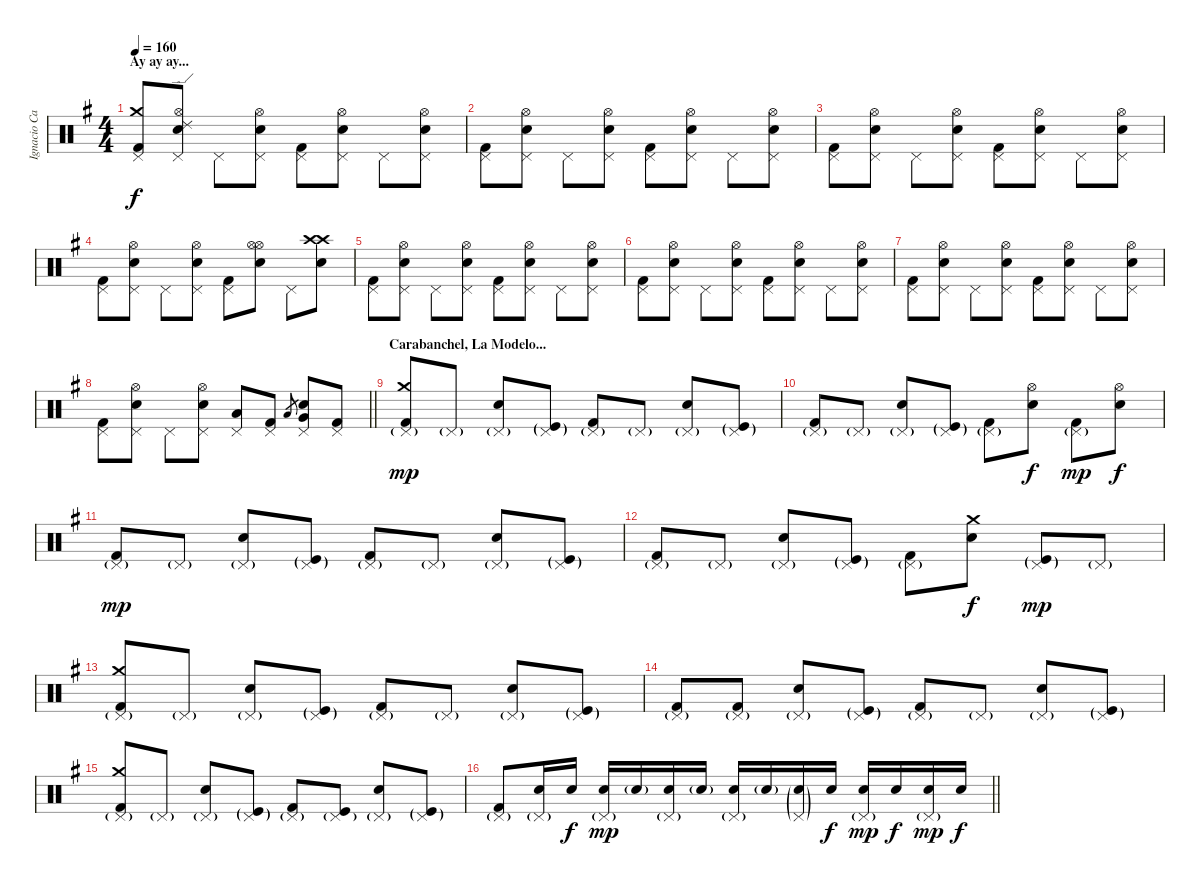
\track ("Ignacio Cantera - Batería" "Ignacio Ca") {instrument percussion}
\staff {score}
\articulation defaults
\ts (4 4)
\section ("" "Ay ay ay...")
\tempo 160
\clef neutral
\ks eminor
("Pedal Hi-Hat (hit)" "Crash medium (hit)" "Kick (hit) 2").8{dy f} ("Pedal Hi-Hat (hit)" "Snare (hit) 2" "Hi-Hat (open)" "Ride (edge) 2").8 "Pedal Hi-Hat (hit)".8 ("Pedal Hi-Hat (hit)" "Snare (hit) 2" "Hi-Hat (open)").8 ("Pedal Hi-Hat (hit)" "Kick (hit) 2").8 ("Pedal Hi-Hat (hit)" "Snare (hit) 2" "Hi-Hat (open)").8 "Pedal Hi-Hat (hit)".8 ("Pedal Hi-Hat (hit)" "Snare (hit) 2" "Hi-Hat (open)").8 |
("Pedal Hi-Hat (hit)" "Kick (hit) 2").8 ("Pedal Hi-Hat (hit)" "Snare (hit) 2" "Hi-Hat (open)").8 "Pedal Hi-Hat (hit)".8 ("Pedal Hi-Hat (hit)" "Snare (hit) 2" "Hi-Hat (open)").8 ("Pedal Hi-Hat (hit)" "Kick (hit) 2").8 ("Pedal Hi-Hat (hit)" "Snare (hit) 2" "Hi-Hat (open)").8 "Pedal Hi-Hat (hit)".8 ("Pedal Hi-Hat (hit)" "Snare (hit) 2" "Hi-Hat (open)").8 |
("Pedal Hi-Hat (hit)" "Kick (hit) 2").8 ("Pedal Hi-Hat (hit)" "Snare (hit) 2" "Hi-Hat (open)").8 "Pedal Hi-Hat (hit)".8 ("Pedal Hi-Hat (hit)" "Snare (hit) 2" "Hi-Hat (open)").8 ("Pedal Hi-Hat (hit)" "Kick (hit) 2").8 ("Pedal Hi-Hat (hit)" "Snare (hit) 2" "Hi-Hat (open)").8 "Pedal Hi-Hat (hit)".8 ("Pedal Hi-Hat (hit)" "Snare (hit) 2" "Hi-Hat (open)").8 |
("Pedal Hi-Hat (hit)" "Kick (hit) 2").8 ("Pedal Hi-Hat (hit)" "Snare (hit) 2" "Hi-Hat (open)").8 "Pedal Hi-Hat (hit)".8 ("Pedal Hi-Hat (hit)" "Snare (hit) 2" "Hi-Hat (open)").8 ("Pedal Hi-Hat (hit)" "Kick (hit) 2").8 ("Hi-Hat (open)" "Snare (hit) 2" "Hi-Hat (open)").8 "Pedal Hi-Hat (hit)".8 ("Crash high (hit)" "Snare (hit) 2" "Crash high (hit)").8 |
("Pedal Hi-Hat (hit)" "Kick (hit) 2").8 ("Pedal Hi-Hat (hit)" "Snare (hit) 2" "Hi-Hat (open)").8 "Pedal Hi-Hat (hit)".8 ("Pedal Hi-Hat (hit)" "Snare (hit) 2" "Hi-Hat (open)").8 ("Pedal Hi-Hat (hit)" "Kick (hit) 2").8 ("Pedal Hi-Hat (hit)" "Snare (hit) 2" "Hi-Hat (open)").8 "Pedal Hi-Hat (hit)".8 ("Pedal Hi-Hat (hit)" "Snare (hit) 2" "Hi-Hat (open)").8 |
("Pedal Hi-Hat (hit)" "Kick (hit) 2").8 ("Pedal Hi-Hat (hit)" "Snare (hit) 2" "Hi-Hat (open)").8 "Pedal Hi-Hat (hit)".8 ("Pedal Hi-Hat (hit)" "Snare (hit) 2" "Hi-Hat (open)").8 ("Pedal Hi-Hat (hit)" "Kick (hit) 2").8 ("Pedal Hi-Hat (hit)" "Snare (hit) 2" "Hi-Hat (open)").8 "Pedal Hi-Hat (hit)".8 ("Pedal Hi-Hat (hit)" "Snare (hit) 2" "Hi-Hat (open)").8 |
("Pedal Hi-Hat (hit)" "Kick (hit) 2").8 ("Pedal Hi-Hat (hit)" "Snare (hit) 2" "Hi-Hat (open)").8 "Pedal Hi-Hat (hit)".8 ("Pedal Hi-Hat (hit)" "Snare (hit) 2" "Hi-Hat (open)").8 ("Pedal Hi-Hat (hit)" "Kick (hit) 2").8 ("Pedal Hi-Hat (hit)" "Snare (hit) 2" "Hi-Hat (open)").8 "Pedal Hi-Hat (hit)".8 ("Pedal Hi-Hat (hit)" "Snare (hit) 2" "Hi-Hat (open)").8 |
\barLineRight lightlight
("Pedal Hi-Hat (hit)" "Kick (hit) 2").8 ("Pedal Hi-Hat (hit)" "Snare (hit) 2" "Hi-Hat (open)").8 "Pedal Hi-Hat (hit)".8 ("Pedal Hi-Hat (hit)" "Snare (hit) 2" "Hi-Hat (open)").8 ("Pedal Hi-Hat (hit)" "Low Tom (hit)").8 ("Pedal Hi-Hat (hit)" "Kick (hit) 2").8 "Low Tom (hit)".8{gr} ("Pedal Hi-Hat (hit)" "Snare (hit) 2" "Very Low Tom (hit)").8 ("Pedal Hi-Hat (hit)" "Kick (hit) 2").8 |
\section ("" "Carabanchel, La Modelo...")
("Pedal Hi-Hat (hit)"{g} "Crash medium (hit)" "Kick (hit) 2").8{dy mp} "Pedal Hi-Hat (hit)"{g}.8 ("Pedal Hi-Hat (hit)"{g} "Snare (hit) 2").8 ("Pedal Hi-Hat (hit)"{g} "Kick (hit)"{g}).8 ("Pedal Hi-Hat (hit)"{g} "Kick (hit) 2").8 "Pedal Hi-Hat (hit)"{g}.8 ("Pedal Hi-Hat (hit)"{g} "Snare (hit) 2").8 ("Pedal Hi-Hat (hit)"{g} "Kick (hit)"{g}).8 |
("Pedal Hi-Hat (hit)"{g} "Kick (hit) 2").8 "Pedal Hi-Hat (hit)"{g}.8 ("Pedal Hi-Hat (hit)"{g} "Snare (hit) 2").8 ("Pedal Hi-Hat (hit)"{g} "Kick (hit)"{g}).8 ("Pedal Hi-Hat (hit)"{g} "Kick (hit) 2").8 ("Hi-Hat (open)" "Snare (hit) 2").8{dy f} ("Pedal Hi-Hat (hit)"{g} "Kick (hit) 2").8{dy mp} ("Hi-Hat (open)" "Snare (hit) 2").8{dy f} |
("Pedal Hi-Hat (hit)"{g} "Kick (hit) 2").8{dy mp} "Pedal Hi-Hat (hit)"{g}.8 ("Pedal Hi-Hat (hit)"{g} "Snare (hit) 2").8 ("Pedal Hi-Hat (hit)"{g} "Kick (hit)"{g}).8 ("Pedal Hi-Hat (hit)"{g} "Kick (hit) 2").8 "Pedal Hi-Hat (hit)"{g}.8 ("Pedal Hi-Hat (hit)"{g} "Snare (hit) 2").8 ("Pedal Hi-Hat (hit)"{g} "Kick (hit)"{g}).8 |
("Pedal Hi-Hat (hit)"{g} "Kick (hit) 2").8 "Pedal Hi-Hat (hit)"{g}.8 ("Pedal Hi-Hat (hit)"{g} "Snare (hit) 2").8 ("Pedal Hi-Hat (hit)"{g} "Kick (hit)"{g}).8 ("Pedal Hi-Hat (hit)"{g} "Kick (hit) 2").8 ("Crash medium (hit)" "Snare (hit) 2").8{dy f} ("Pedal Hi-Hat (hit)"{g} "Kick (hit)"{g}).8{dy mp} "Pedal Hi-Hat (hit)"{g}.8 |
("Pedal Hi-Hat (hit)"{g} "Crash medium (hit)" "Kick (hit) 2").8 "Pedal Hi-Hat (hit)"{g}.8 ("Pedal Hi-Hat (hit)"{g} "Snare (hit) 2").8 ("Pedal Hi-Hat (hit)"{g} "Kick (hit)"{g}).8 ("Pedal Hi-Hat (hit)"{g} "Kick (hit) 2").8 "Pedal Hi-Hat (hit)"{g}.8 ("Pedal Hi-Hat (hit)"{g} "Snare (hit) 2").8 ("Pedal Hi-Hat (hit)"{g} "Kick (hit)"{g}).8 |
("Pedal Hi-Hat (hit)"{g} "Kick (hit) 2").8 ("Pedal Hi-Hat (hit)"{g} "Kick (hit) 2").8 ("Pedal Hi-Hat (hit)"{g} "Snare (hit) 2").8 ("Pedal Hi-Hat (hit)"{g} "Kick (hit)"{g}).8 ("Pedal Hi-Hat (hit)"{g} "Kick (hit) 2").8 "Pedal Hi-Hat (hit)"{g}.8 ("Pedal Hi-Hat (hit)"{g} "Snare (hit) 2").8 ("Pedal Hi-Hat (hit)"{g} "Kick (hit)"{g}).8 |
("Pedal Hi-Hat (hit)"{g} "Crash medium (hit)" "Kick (hit) 2").8 "Pedal Hi-Hat (hit)"{g}.8 ("Pedal Hi-Hat (hit)"{g} "Snare (hit) 2").8 ("Pedal Hi-Hat (hit)"{g} "Kick (hit)"{g}).8 ("Pedal Hi-Hat (hit)"{g} "Kick (hit) 2").8 ("Pedal Hi-Hat (hit)"{g} "Kick (hit)").8 ("Pedal Hi-Hat (hit)"{g} "Snare (hit) 2").8 ("Pedal Hi-Hat (hit)"{g} "Kick (hit)"{g}).8 |
\barLineRight lightlight
("Pedal Hi-Hat (hit)"{g} "Kick (hit) 2").8 ("Pedal Hi-Hat (hit)"{g} "Electric Snare (hit)").16 "Electric Snare (hit)".16{dy f} ("Pedal Hi-Hat (hit)"{g} "Electric Snare (hit)").16{dy mp} "Electric Snare (hit)"{g}.16 ("Pedal Hi-Hat (hit)"{g} "Electric Snare (hit)").16 "Electric Snare (hit)"{g}.16 ("Pedal Hi-Hat (hit)"{g} "Electric Snare (hit)").16 "Electric Snare (hit)"{g}.16 ("Pedal Hi-Hat (hit)"{g} "Electric Snare (hit)"{g}).16 "Electric Snare (hit)".16{dy f} ("Pedal Hi-Hat (hit)"{g} "Electric Snare (hit)").16{dy mp} "Electric Snare (hit)".16{dy f} ("Pedal Hi-Hat (hit)"{g} "Electric Snare (hit)").16{dy mp} "Electric Snare (hit)".16{dy f}
